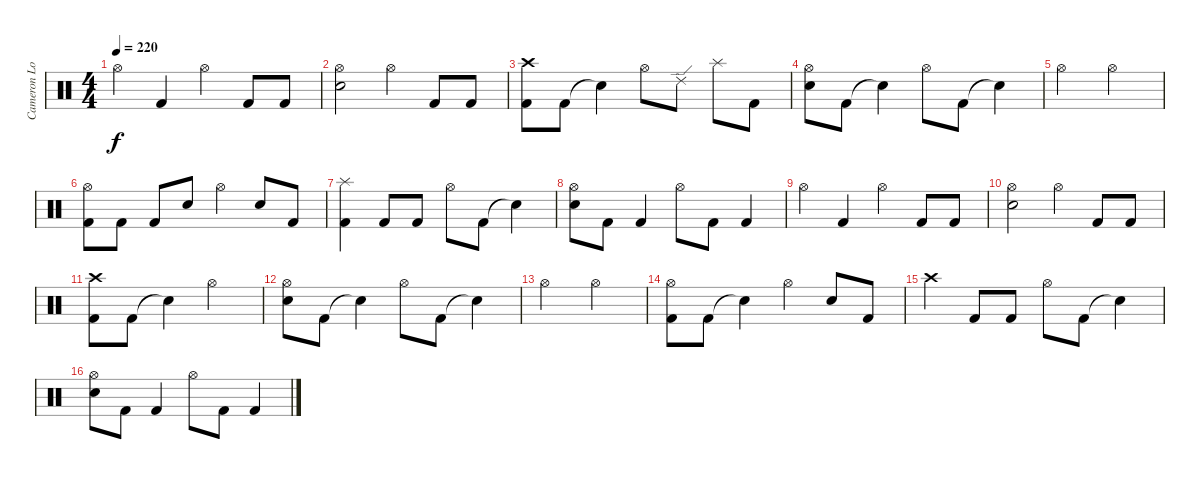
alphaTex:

\track ("Cameron Losch - Drums" "Cameron Lo") {instrument percussion}
\staff {score}
\articulation defaults
\ts (4 4)
\tempo 220
\clef neutral
\ks c "Hi-Hat (open)".4{dy f} "Kick (hit) 2".4 "Hi-Hat (open)".4 "Kick (hit) 2".8 "Kick (hit) 2".8
|
("Electric Snare (hit)" "Hi-Hat (open)").2 "Hi-Hat (open)".4 "Kick (hit) 2".8 "Kick (hit) 2".8 |
("Kick (hit) 2" "Crash high (hit)").8 "Kick (hit) 2".8 "Snare (hit)"{t}.4 "Hi-Hat (open)".8 "Ride (edge) 2".8 "Splash (hit)".8 "Kick (hit) 2".8 |
("Electric Snare (hit)" "Hi-Hat (open)").8 "Kick (hit) 2".8 "Snare (hit)"{t}.4 "Hi-Hat (open)".8 "Kick (hit) 2".8 "Snare (hit)"{t}.4 |
"Hi-Hat (open)".2 "Hi-Hat (open)".2 |
("Kick (hit) 2" "Hi-Hat (open)").8 "Kick (hit) 2".8 "Kick (hit) 2".8 "Electric Snare (hit)".8 "Hi-Hat (open)".4 "Electric Snare (hit)".8 "Kick (hit) 2".8 |
("Kick (hit) 2" "Splash (hit)").4 "Kick (hit) 2".8 "Kick (hit) 2".8 "Hi-Hat (open)".8 "Kick (hit) 2".8 "Snare (hit)"{t}.4 |
("Electric Snare (hit)" "Hi-Hat (open)").8 "Kick (hit) 2".8 "Kick (hit) 2".4 "Hi-Hat (open)".8 "Kick (hit) 2".8 "Kick (hit) 2".4 |
"Hi-Hat (open)".4 "Kick (hit) 2".4 "Hi-Hat (open)".4 "Kick (hit) 2".8 "Kick (hit) 2".8 |
("Electric Snare (hit)" "Hi-Hat (open)").2 "Hi-Hat (open)".4 "Kick (hit) 2".8 "Kick (hit) 2".8 |
("Kick (hit) 2" "Crash high (hit)").8 "Kick (hit) 2".8 "Snare (hit)"{t}.4 "Hi-Hat (open)".2 |
("Electric Snare (hit)" "Hi-Hat (open)").8 "Kick (hit) 2".8 "Snare (hit)"{t}.4 "Hi-Hat (open)".8 "Kick (hit) 2".8 "Snare (hit)"{t}.4 |
"Hi-Hat (open)".2 "Hi-Hat (open)".2 |
("Hi-Hat (open)" "Kick (hit) 2").8 "Kick (hit) 2".8 "Snare (hit)"{t}.4 "Hi-Hat (open)".4 "Electric Snare (hit)".8 "Kick (hit) 2".8 |
"Crash high (hit)".4 "Kick (hit) 2".8 "Kick (hit) 2".8 "Hi-Hat (open)".8 "Kick (hit) 2".8 "Snare (hit)"{t}.4 |
("Electric Snare (hit)" "Hi-Hat (open)").8 "Kick (hit) 2".8 "Kick (hit) 2".4 "Hi-Hat (open)".8 "Kick (hit) 2".8 "Kick (hit) 2".4
